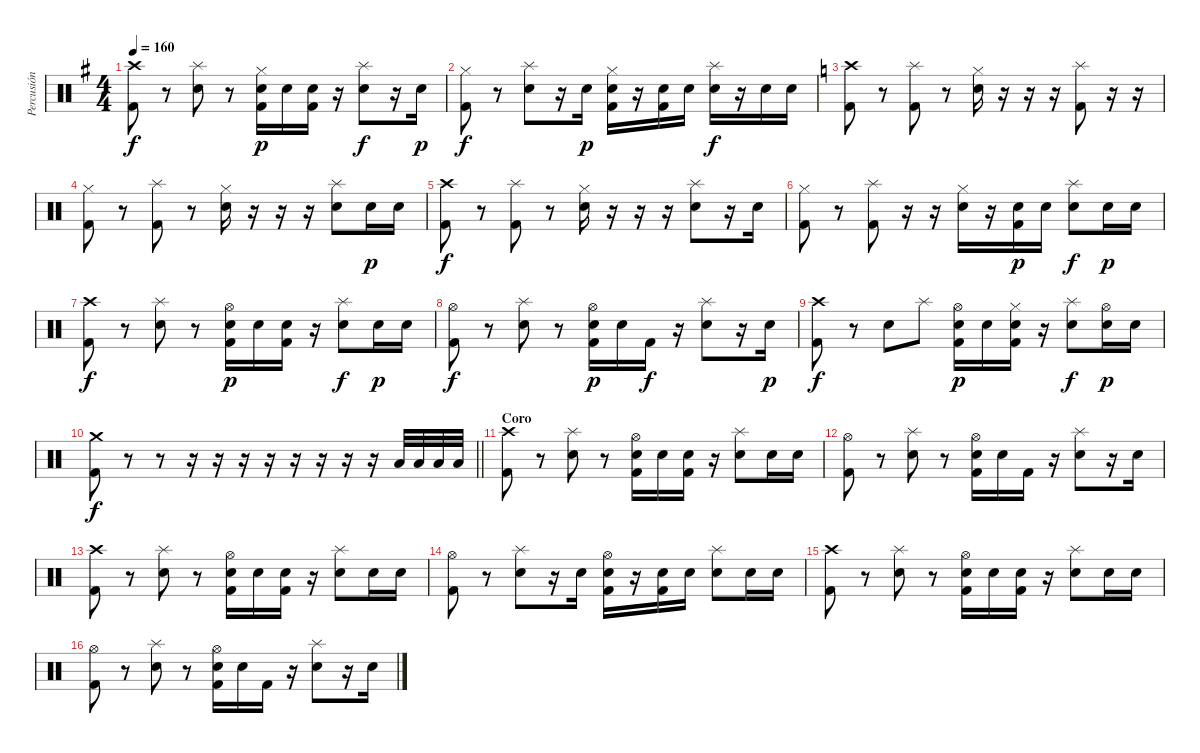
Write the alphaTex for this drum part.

\track ("Percusión" "Percusión") {instrument percussion}
\staff {score}
\articulation defaults
\ts (4 4)
\tempo 160
\clef neutral
\ks g
("Crash high (hit)" "Kick (hit) 2").8{dy f} r.8 ("Splash (hit)" "Electric Snare (hit)").8 r.8 ("Hi-Hat (closed)" "Electric Snare (hit)" "Kick (hit) 2").16{dy p} "Electric Snare (hit)".16 ("Electric Snare (hit)" "Kick (hit) 2").16 r.16 ("Splash (hit)" "Electric Snare (hit)").8{dy f} r.16 "Electric Snare (hit)".16{dy p} |
("Hi-Hat (closed)" "Kick (hit) 2").8{dy f} r.8 ("Splash (hit)" "Electric Snare (hit)").8 r.16 "Electric Snare (hit)".16{dy p} ("Hi-Hat (closed)" "Electric Snare (hit)" "Kick (hit) 2").16 r.16 ("Electric Snare (hit)" "Kick (hit) 2").16 "Electric Snare (hit)".16 ("Splash (hit)" "Electric Snare (hit)").16{dy f} r.16 "Electric Snare (hit)".16 "Electric Snare (hit)".16 |
\ks c
("Crash high (hit)" "Kick (hit) 2").8 r.8 ("Splash (hit)" "Kick (hit) 2").8 r.8 ("Hi-Hat (closed)" "Electric Snare (hit)").16 r.16 r.16 r.16 ("Splash (hit)" "Kick (hit) 2").8 r.16 r.16 |
("Hi-Hat (closed)" "Kick (hit) 2").8 r.8 ("Splash (hit)" "Kick (hit) 2").8 r.8 ("Hi-Hat (closed)" "Electric Snare (hit)").16 r.16 r.16 r.16 ("Splash (hit)" "Electric Snare (hit)").8 "Electric Snare (hit)".16{dy p} "Electric Snare (hit)".16 |
("Crash high (hit)" "Kick (hit) 2").8{dy f} r.8 ("Splash (hit)" "Kick (hit) 2").8 r.8 ("Hi-Hat (closed)" "Electric Snare (hit)").16 r.16 r.16 r.16 ("Splash (hit)" "Electric Snare (hit)").8 r.16 "Electric Snare (hit)".16 |
("Hi-Hat (closed)" "Kick (hit) 2").8 r.8 ("Splash (hit)" "Kick (hit) 2").8 r.16 r.16 ("Hi-Hat (closed)" "Electric Snare (hit)").16 r.16 ("Electric Snare (hit)" "Kick (hit) 2").16{dy p} "Electric Snare (hit)".16 ("Splash (hit)" "Electric Snare (hit)").8{dy f} "Electric Snare (hit)".16{dy p} "Electric Snare (hit)".16 |
("Crash high (hit)" "Kick (hit) 2").8{dy f} r.8 ("Splash (hit)" "Electric Snare (hit)").8 r.8 ("Hi-Hat (open)" "Electric Snare (hit)" "Kick (hit) 2").16{dy p} "Electric Snare (hit)".16 ("Electric Snare (hit)" "Kick (hit) 2").16 r.16 ("Splash (hit)" "Electric Snare (hit)").8{dy f} "Electric Snare (hit)".16{dy p} "Electric Snare (hit)".16 |
("Hi-Hat (open)" "Kick (hit) 2").8{dy f} r.8 ("Splash (hit)" "Electric Snare (hit)").8 r.8 ("Hi-Hat (open)" "Electric Snare (hit)" "Kick (hit) 2").16{dy p} "Electric Snare (hit)".16 "Kick (hit) 2".16{dy f} r.16 ("Splash (hit)" "Electric Snare (hit)").8 r.16 "Electric Snare (hit)".16{dy p} |
("Crash high (hit)" "Kick (hit) 2").8{dy f} r.8 "Electric Snare (hit)".8 "Splash (hit)".8 ("Hi-Hat (open)" "Electric Snare (hit)" "Kick (hit) 2").16{dy p} "Electric Snare (hit)".16 ("Hi-Hat (closed)" "Electric Snare (hit)" "Kick (hit) 2").16 r.16 ("Splash (hit)" "Electric Snare (hit)").8{dy f} ("Hi-Hat (open)" "Electric Snare (hit)").16{dy p} "Electric Snare (hit)".16 |
\barLineRight lightlight
("Crash medium (hit)" "Kick (hit) 2").8{dy f} r.8 r.8 r.16 r.16 r.16 r.16 r.16 r.16 r.16 r.16 "Low Tom (hit)".32 "Low Tom (hit)".32 "Low Floor Tom (hit)".32 "Low Floor Tom (hit)".32 |
\section ("" "Coro")
("Crash high (hit)" "Kick (hit) 2").8 r.8 ("Splash (hit)" "Electric Snare (hit)").8 r.8 ("Hi-Hat (open)" "Electric Snare (hit)" "Kick (hit) 2").16 "Electric Snare (hit)".16 ("Electric Snare (hit)" "Kick (hit) 2").16 r.16 ("Splash (hit)" "Electric Snare (hit)").8 "Electric Snare (hit)".16 "Electric Snare (hit)".16 |
("Hi-Hat (open)" "Kick (hit) 2").8 r.8 ("Splash (hit)" "Electric Snare (hit)").8 r.8 ("Hi-Hat (open)" "Electric Snare (hit)" "Kick (hit) 2").16 "Electric Snare (hit)".16 "Kick (hit) 2".16 r.16 ("Splash (hit)" "Electric Snare (hit)").8 r.16 "Electric Snare (hit)".16 |
("Crash high (hit)" "Kick (hit) 2").8 r.8 ("Splash (hit)" "Electric Snare (hit)").8 r.8 ("Hi-Hat (open)" "Electric Snare (hit)" "Kick (hit) 2").16 "Electric Snare (hit)".16 ("Electric Snare (hit)" "Kick (hit) 2").16 r.16 ("Splash (hit)" "Electric Snare (hit)").8 "Electric Snare (hit)".16 "Electric Snare (hit)".16 |
("Hi-Hat (open)" "Kick (hit) 2").8 r.8 ("Splash (hit)" "Electric Snare (hit)").8 r.16 "Electric Snare (hit)".16 ("Hi-Hat (open)" "Electric Snare (hit)" "Kick (hit) 2").16 r.16 ("Electric Snare (hit)" "Kick (hit) 2").16 "Electric Snare (hit)".16 ("Splash (hit)" "Electric Snare (hit)").8 "Electric Snare (hit)".16 "Electric Snare (hit)".16 |
("Crash high (hit)" "Kick (hit) 2").8 r.8 ("Splash (hit)" "Electric Snare (hit)").8 r.8 ("Hi-Hat (open)" "Electric Snare (hit)" "Kick (hit) 2").16 "Electric Snare (hit)".16 ("Electric Snare (hit)" "Kick (hit) 2").16 r.16 ("Splash (hit)" "Electric Snare (hit)").8 "Electric Snare (hit)".16 "Electric Snare (hit)".16 |
("Hi-Hat (open)" "Kick (hit) 2").8 r.8 ("Splash (hit)" "Electric Snare (hit)").8 r.8 ("Hi-Hat (open)" "Electric Snare (hit)" "Kick (hit) 2").16 "Electric Snare (hit)".16 "Kick (hit) 2".16 r.16 ("Splash (hit)" "Electric Snare (hit)").8 r.16 "Electric Snare (hit)".16
